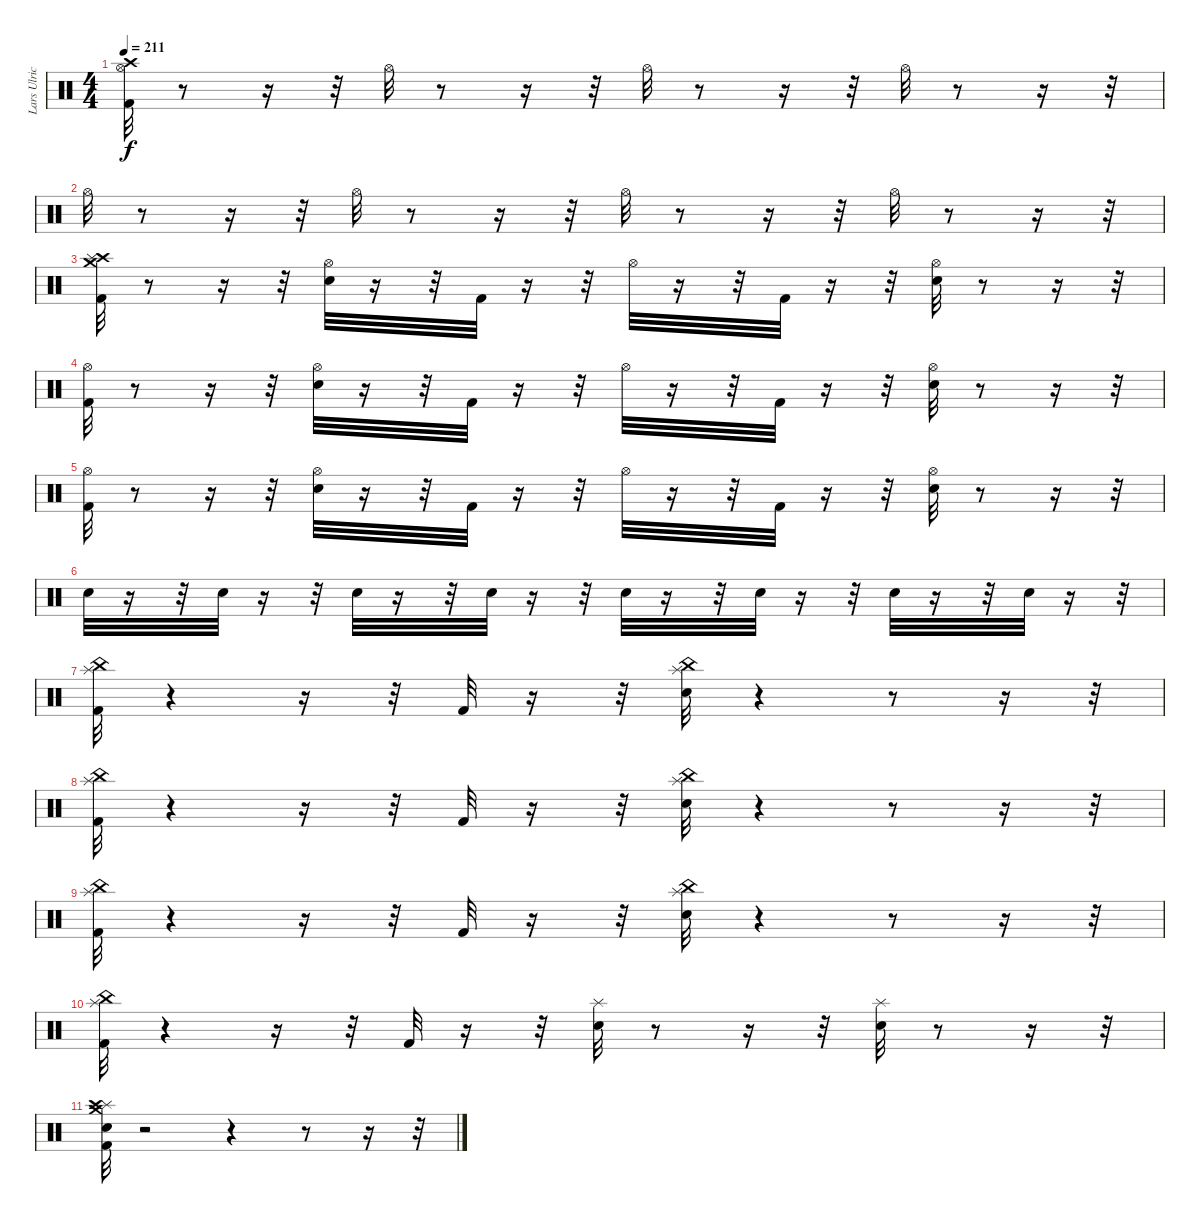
\track ("Lars Ulrich (Drums)" "Lars Ulric") {instrument percussion}
\staff {score}
\articulation defaults
\ts (4 4)
\tempo 211
\clef neutral
\ks c
("Hi-Hat (open)" "Crash high (hit)" "Kick (hit) 2").32{dy f} r.8 r.16 r.32 "Hi-Hat (open)".32 r.8 r.16 r.32 "Hi-Hat (open)".32 r.8 r.16 r.32 "Hi-Hat (open)".32 r.8 r.16 r.32 |
"Hi-Hat (open)".32 r.8 r.16 r.32 "Hi-Hat (open)".32 r.8 r.16 r.32 "Hi-Hat (open)".32 r.8 r.16 r.32 "Hi-Hat (open)".32 r.8 r.16 r.32 |
("Kick (hit) 2" "Crash high (hit)" "Crash medium (hit)" "Splash (hit)").32 r.8 r.16 r.32 ("Snare (hit) 2" "Hi-Hat (open)").32 r.16 r.32 "Kick (hit) 2".32 r.16 r.32 "Hi-Hat (open)".32 r.16 r.32 "Kick (hit) 2".32 r.16 r.32 ("Snare (hit) 2" "Hi-Hat (open)").32 r.8 r.16 r.32 |
("Kick (hit) 2" "Hi-Hat (open)").32 r.8 r.16 r.32 ("Snare (hit) 2" "Hi-Hat (open)").32 r.16 r.32 "Kick (hit) 2".32 r.16 r.32 "Hi-Hat (open)".32 r.16 r.32 "Kick (hit) 2".32 r.16 r.32 ("Snare (hit) 2" "Hi-Hat (open)").32 r.8 r.16 r.32 |
("Kick (hit) 2" "Hi-Hat (open)").32 r.8 r.16 r.32 ("Snare (hit) 2" "Hi-Hat (open)").32 r.16 r.32 "Kick (hit) 2".32 r.16 r.32 "Hi-Hat (open)".32 r.16 r.32 "Kick (hit) 2".32 r.16 r.32 ("Snare (hit) 2" "Hi-Hat (open)").32 r.8 r.16 r.32 |
"Snare (hit) 2".32 r.16 r.32 "Snare (hit) 2".32 r.16 r.32 "Snare (hit) 2".32 r.16 r.32 "Snare (hit) 2".32 r.16 r.32 "Snare (hit) 2".32 r.16 r.32 "Snare (hit) 2".32 r.16 r.32 "Snare (hit) 2".32 r.16 r.32 "Snare (hit) 2".32 r.16 r.32 |
("Kick (hit) 2" "China (hit)" "Splash (hit)").32 r.4 r.16 r.32 "Kick (hit) 2".32 r.16 r.32 ("Snare (hit) 2" "China (hit)" "Splash (hit)").32 r.4 r.8 r.16 r.32 |
("Kick (hit) 2" "China (hit)" "Splash (hit)").32 r.4 r.16 r.32 "Kick (hit) 2".32 r.16 r.32 ("Snare (hit) 2" "China (hit)" "Splash (hit)").32 r.4 r.8 r.16 r.32 |
("Kick (hit) 2" "China (hit)" "Splash (hit)").32 r.4 r.16 r.32 "Kick (hit) 2".32 r.16 r.32 ("Snare (hit) 2" "China (hit)" "Splash (hit)").32 r.4 r.8 r.16 r.32 |
("Kick (hit) 2" "China (hit)" "Splash (hit)").32 r.4 r.16 r.32 "Kick (hit) 2".32 r.16 r.32 ("Snare (hit) 2" "Splash (hit)").32 r.8 r.16 r.32 ("Splash (hit)" "Snare (hit) 2").32 r.8 r.16 r.32 |
("Splash (hit)" "Crash medium (hit)" "Snare (hit) 2" "Kick (hit) 2" "Crash high (hit)").32 r.2 r.4 r.8 r.16 r.32
